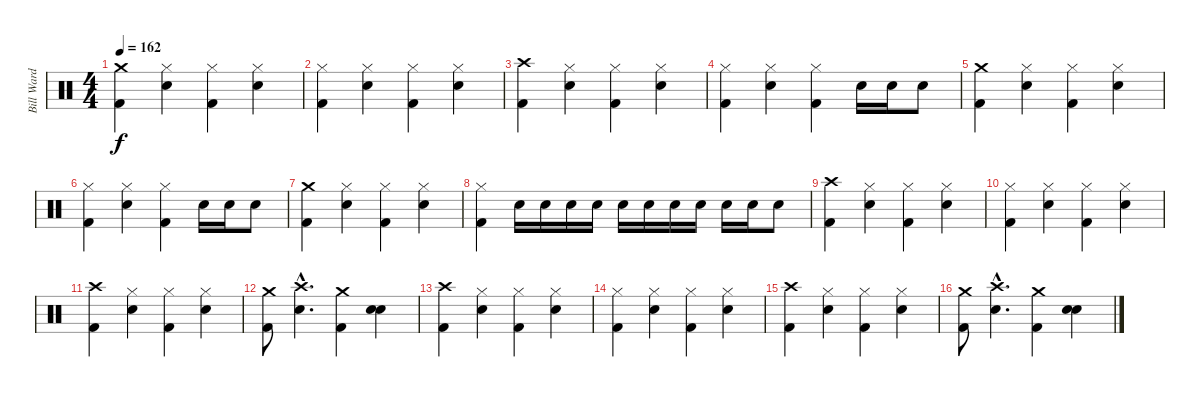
\track ("Bill Ward" "Bill Ward") {instrument percussion}
\staff {score}
\articulation defaults
\ts (4 4)
\tempo 162
\clef neutral
\ks c
("Kick (hit) 2" "Crash medium (hit)").4{dy f} ("Hi-Hat (closed)" "Snare (hit) 2").4 ("Hi-Hat (closed)" "Kick (hit) 2").4 ("Hi-Hat (closed)" "Snare (hit) 2").4 |
("Hi-Hat (closed)" "Kick (hit) 2").4 ("Hi-Hat (closed)" "Snare (hit) 2").4 ("Hi-Hat (closed)" "Kick (hit) 2").4 ("Hi-Hat (closed)" "Snare (hit) 2").4 |
("Crash high (hit)" "Kick (hit) 2").4 ("Hi-Hat (closed)" "Snare (hit) 2").4 ("Hi-Hat (closed)" "Kick (hit) 2").4 ("Hi-Hat (closed)" "Snare (hit) 2").4 |
("Hi-Hat (closed)" "Kick (hit) 2").4 ("Hi-Hat (closed)" "Snare (hit) 2").4 ("Hi-Hat (closed)" "Kick (hit) 2").4 "Snare (hit) 2".16 "Snare (hit) 2".16 "Snare (hit) 2".8 |
("Kick (hit) 2" "Crash medium (hit)").4 ("Hi-Hat (closed)" "Snare (hit) 2").4 ("Hi-Hat (closed)" "Kick (hit) 2").4 ("Hi-Hat (closed)" "Snare (hit) 2").4 |
("Hi-Hat (closed)" "Kick (hit) 2").4 ("Hi-Hat (closed)" "Snare (hit) 2").4 ("Hi-Hat (closed)" "Kick (hit) 2").4 "Snare (hit) 2".16 "Snare (hit) 2".16 "Snare (hit) 2".8 |
("Kick (hit) 2" "Crash medium (hit)").4 ("Hi-Hat (closed)" "Snare (hit) 2").4 ("Hi-Hat (closed)" "Kick (hit) 2").4 ("Hi-Hat (closed)" "Snare (hit) 2").4 |
("Hi-Hat (closed)" "Kick (hit) 2").4 "Snare (hit) 2".16 "Snare (hit) 2".16 "Snare (hit) 2".16 "Snare (hit) 2".16 "Snare (hit) 2".16 "Snare (hit) 2".16 "Snare (hit) 2".16 "Snare (hit) 2".16 "Snare (hit) 2".16 "Snare (hit) 2".16 "Snare (hit) 2".8 |
("Crash high (hit)" "Kick (hit) 2").4 ("Hi-Hat (closed)" "Snare (hit) 2").4 ("Hi-Hat (closed)" "Kick (hit) 2").4 ("Hi-Hat (closed)" "Snare (hit) 2").4 |
("Hi-Hat (closed)" "Kick (hit) 2").4 ("Hi-Hat (closed)" "Snare (hit) 2").4 ("Hi-Hat (closed)" "Kick (hit) 2").4 ("Hi-Hat (closed)" "Snare (hit) 2").4 |
("Crash high (hit)" "Kick (hit) 2").4 ("Hi-Hat (closed)" "Snare (hit) 2").4 ("Hi-Hat (closed)" "Kick (hit) 2").4 ("Hi-Hat (closed)" "Snare (hit) 2").4 |
("Kick (hit) 2" "Crash medium (hit)").8 ("Snare (hit) 2"{hac} "Crash high (hit)"{hac}).4{d} ("Kick (hit) 2" "Crash medium (hit)").4 ("Snare (hit) 2" "Snare (hit) 2").4{bd 480} |
("Crash high (hit)" "Kick (hit) 2").4 ("Hi-Hat (closed)" "Snare (hit) 2").4 ("Hi-Hat (closed)" "Kick (hit) 2").4 ("Hi-Hat (closed)" "Snare (hit) 2").4 |
("Hi-Hat (closed)" "Kick (hit) 2").4 ("Hi-Hat (closed)" "Snare (hit) 2").4 ("Hi-Hat (closed)" "Kick (hit) 2").4 ("Hi-Hat (closed)" "Snare (hit) 2").4 |
("Crash high (hit)" "Kick (hit) 2").4 ("Hi-Hat (closed)" "Snare (hit) 2").4 ("Hi-Hat (closed)" "Kick (hit) 2").4 ("Hi-Hat (closed)" "Snare (hit) 2").4 |
("Kick (hit) 2" "Crash medium (hit)").8 ("Snare (hit) 2"{hac} "Crash high (hit)"{hac}).4{d} ("Kick (hit) 2" "Crash medium (hit)").4 ("Snare (hit) 2" "Snare (hit) 2").4{bd 480}
